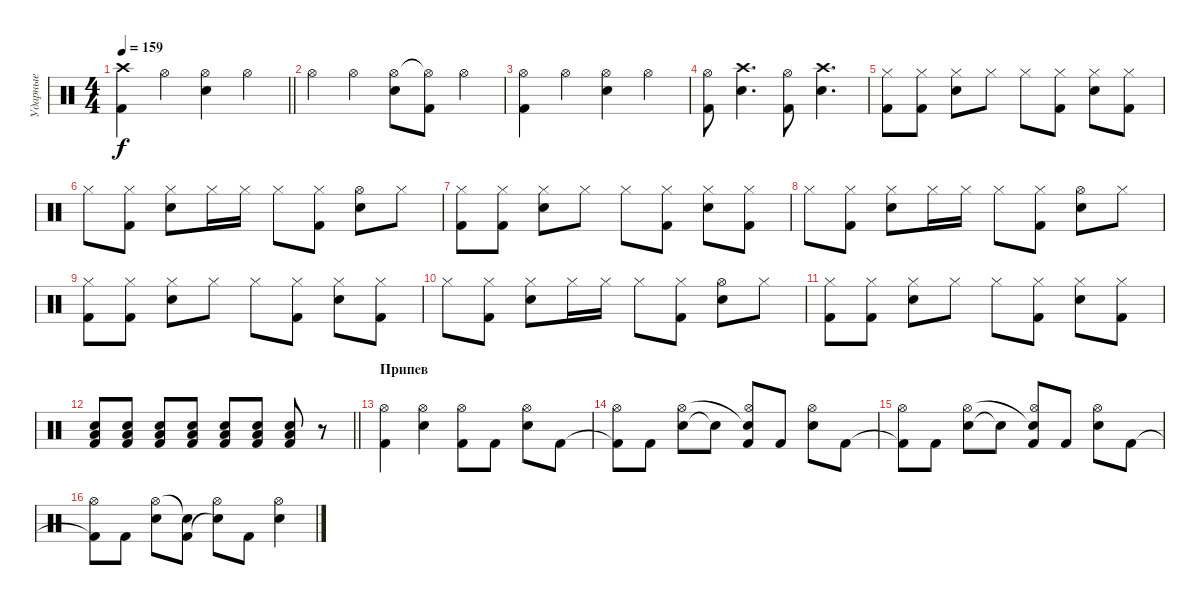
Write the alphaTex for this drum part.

\track ("Ударные" "Ударные") {instrument percussion}
\staff {score}
\articulation defaults
\ts (4 4)
\tempo 159
\clef neutral
\barLineRight lightlight
\ks c
("Kick (hit) 2" "Crash high (hit)").4{dy f} "Hi-Hat (open)".4 ("Snare (hit) 2" "Hi-Hat (open)").4 "Hi-Hat (open)".4 |
"Hi-Hat (open)".4 "Hi-Hat (open)".4 ("Snare (hit) 2" "Hi-Hat (open)").8 ("Kick (hit) 2" "Hi-Hat (open)"{t}).8 "Hi-Hat (open)".4 |
("Kick (hit) 2" "Hi-Hat (open)").4 "Hi-Hat (open)".4 ("Snare (hit) 2" "Hi-Hat (open)").4 "Hi-Hat (open)".4 |
("Kick (hit) 2" "Hi-Hat (open)").8 ("Snare (hit) 2" "Crash high (hit)").4{d} ("Kick (hit) 2" "Hi-Hat (open)").8 ("Snare (hit) 2" "Crash high (hit)").4{d} |
("Kick (hit) 2" "Hi-Hat (closed)").8 ("Kick (hit) 2" "Hi-Hat (closed)").8 ("Snare (hit) 2" "Hi-Hat (closed)").8 "Hi-Hat (closed)".8 "Hi-Hat (closed)".8 ("Kick (hit) 2" "Hi-Hat (closed)").8 ("Snare (hit) 2" "Hi-Hat (closed)").8 ("Kick (hit) 2" "Hi-Hat (closed)").8 |
"Hi-Hat (closed)".8 ("Kick (hit) 2" "Hi-Hat (closed)").8 ("Snare (hit) 2" "Hi-Hat (closed)").8 "Hi-Hat (closed)".16 "Hi-Hat (closed)".16 "Hi-Hat (closed)".8 ("Kick (hit) 2" "Hi-Hat (closed)").8 ("Snare (hit) 2" "Hi-Hat (open)").8 "Hi-Hat (closed)".8 |
("Kick (hit) 2" "Hi-Hat (closed)").8 ("Kick (hit) 2" "Hi-Hat (closed)").8 ("Snare (hit) 2" "Hi-Hat (closed)").8 "Hi-Hat (closed)".8 "Hi-Hat (closed)".8 ("Kick (hit) 2" "Hi-Hat (closed)").8 ("Snare (hit) 2" "Hi-Hat (closed)").8 ("Kick (hit) 2" "Hi-Hat (closed)").8 |
"Hi-Hat (closed)".8 ("Kick (hit) 2" "Hi-Hat (closed)").8 ("Snare (hit) 2" "Hi-Hat (closed)").8 "Hi-Hat (closed)".16 "Hi-Hat (closed)".16 "Hi-Hat (closed)".8 ("Kick (hit) 2" "Hi-Hat (closed)").8 ("Snare (hit) 2" "Hi-Hat (open)").8 "Hi-Hat (closed)".8 |
("Kick (hit) 2" "Hi-Hat (closed)").8 ("Kick (hit) 2" "Hi-Hat (closed)").8 ("Snare (hit) 2" "Hi-Hat (closed)").8 "Hi-Hat (closed)".8 "Hi-Hat (closed)".8 ("Kick (hit) 2" "Hi-Hat (closed)").8 ("Snare (hit) 2" "Hi-Hat (closed)").8 ("Kick (hit) 2" "Hi-Hat (closed)").8 |
"Hi-Hat (closed)".8 ("Kick (hit) 2" "Hi-Hat (closed)").8 ("Snare (hit) 2" "Hi-Hat (closed)").8 "Hi-Hat (closed)".16 "Hi-Hat (closed)".16 "Hi-Hat (closed)".8 ("Kick (hit) 2" "Hi-Hat (closed)").8 ("Snare (hit) 2" "Hi-Hat (open)").8 "Hi-Hat (closed)".8 |
("Kick (hit) 2" "Hi-Hat (closed)").8 ("Kick (hit) 2" "Hi-Hat (closed)").8 ("Snare (hit) 2" "Hi-Hat (closed)").8 "Hi-Hat (closed)".8 "Hi-Hat (closed)".8 ("Kick (hit) 2" "Hi-Hat (closed)").8 ("Snare (hit) 2" "Hi-Hat (closed)").8 ("Kick (hit) 2" "Hi-Hat (closed)").8 |
\barLineRight lightlight
("Kick (hit) 2" "Snare (hit) 2" "Low Floor Tom (hit)").8 ("Kick (hit) 2" "Snare (hit) 2" "Low Floor Tom (hit)").8 ("Kick (hit) 2" "Snare (hit) 2" "Low Floor Tom (hit)").8 ("Kick (hit) 2" "Snare (hit) 2" "Low Floor Tom (hit)").8 ("Kick (hit) 2" "Snare (hit) 2" "Low Floor Tom (hit)").8 ("Kick (hit) 2" "Snare (hit) 2" "Low Floor Tom (hit)").8 ("Kick (hit) 2" "Snare (hit) 2" "Low Floor Tom (hit)").8 r.8 |
\section ("" "Припев")
("Kick (hit) 2" "Hi-Hat (open)").4 ("Snare (hit) 2" "Hi-Hat (open)").4 ("Kick (hit) 2" "Hi-Hat (open)").8 "Kick (hit) 2".8 ("Snare (hit) 2" "Hi-Hat (open)").8 "Kick (hit) 2".8 |
("Kick (hit) 2"{t} "Hi-Hat (open)").8 "Kick (hit) 2".8 ("Snare (hit) 2" "Hi-Hat (open)").8 "Snare (hit) 2"{t}.8 ("Kick (hit) 2" "Snare (hit) 2"{t} "Hi-Hat (open)").8 "Kick (hit) 2".8 ("Snare (hit) 2" "Hi-Hat (open)").8 "Kick (hit) 2".8 |
("Kick (hit) 2"{t} "Hi-Hat (open)").8 "Kick (hit) 2".8 ("Snare (hit) 2" "Hi-Hat (open)").8 "Snare (hit) 2"{t}.8 ("Kick (hit) 2" "Snare (hit) 2"{t} "Hi-Hat (open)").8 "Kick (hit) 2".8 ("Snare (hit) 2" "Hi-Hat (open)").8 "Kick (hit) 2".8 |
("Kick (hit) 2"{t} "Hi-Hat (open)").8 "Kick (hit) 2".8 ("Snare (hit) 2" "Hi-Hat (open)").8 ("Kick (hit) 2" "Snare (hit) 2"{t}).8 ("Snare (hit) 2"{t} "Hi-Hat (open)").8 "Kick (hit) 2".8 ("Snare (hit) 2" "Hi-Hat (open)").4
